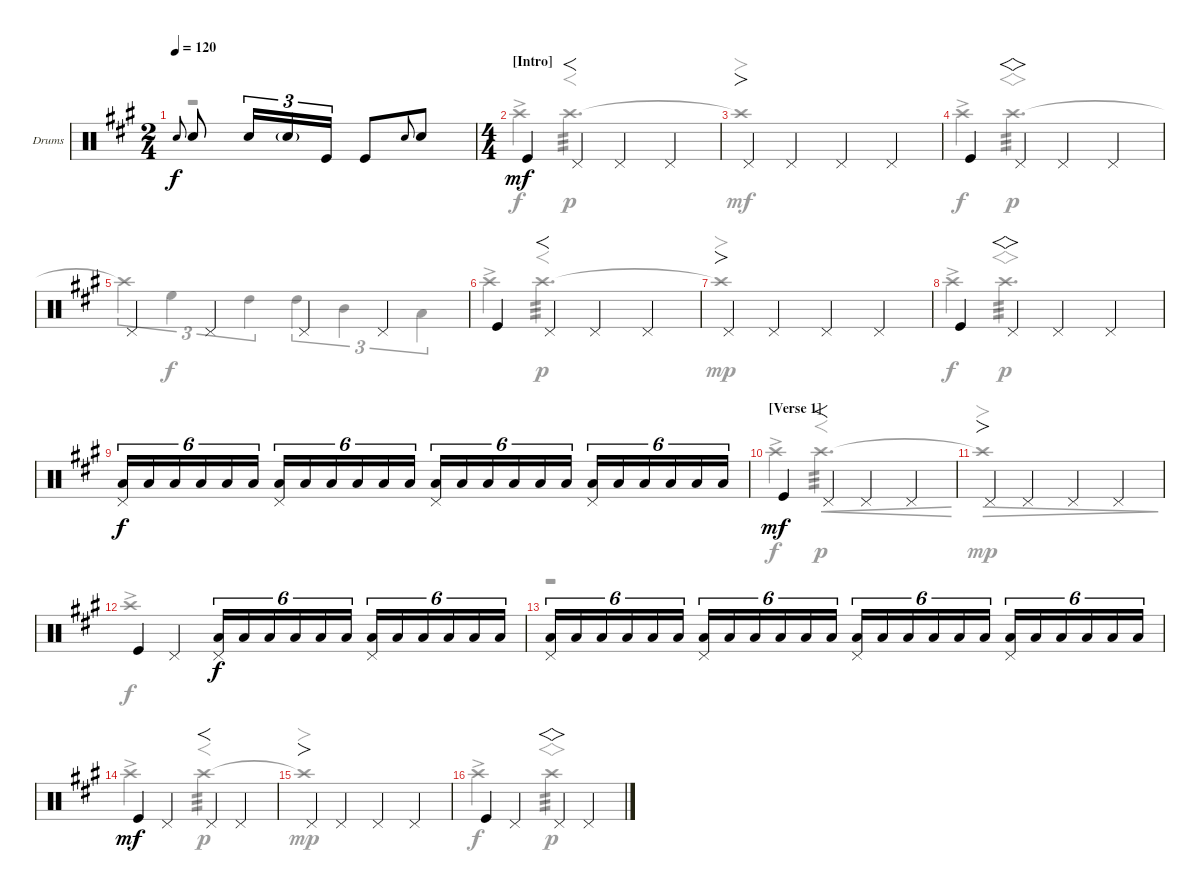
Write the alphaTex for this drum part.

\defaultSystemsLayout 4
\bracketExtendMode groupsimilarinstruments
\firstSystemTrackNameOrientation horizontal
\otherSystemsTrackNameOrientation horizontal
\track ("Drums" "Drums") {instrument percussion}
\staff {score}
\articulation defaults
\voice
\ts (2 4)
\tempo 120
\clef neutral
\ks a "Snare (hit) 2".8{gr onbeat dy f} "Snare (hit) 2".8 "Snare (hit) 2".16{tu (3 2)} "Snare (hit) 2"{g}.16{tu (3 2)} "Kick (hit)".16{tu (3 2)} "Kick (hit)".8 "Snare (hit) 2".8{gr onbeat} "Snare (hit) 2".8
|
\ts (4 4)
\section ("" "[Intro]")
"Kick (hit)".4{dy mf} "Pedal Hi-Hat (hit)".4{f} "Pedal Hi-Hat (hit)".4 "Pedal Hi-Hat (hit)".4 |
"Pedal Hi-Hat (hit)".4{fo} "Pedal Hi-Hat (hit)".4 "Pedal Hi-Hat (hit)".4 "Pedal Hi-Hat (hit)".4 |
"Kick (hit)".4 "Pedal Hi-Hat (hit)".4{vs} "Pedal Hi-Hat (hit)".4 "Pedal Hi-Hat (hit)".4 |
"Pedal Hi-Hat (hit)".4 "Pedal Hi-Hat (hit)".4 "Pedal Hi-Hat (hit)".4 "Pedal Hi-Hat (hit)".4 |
"Kick (hit)".4 "Pedal Hi-Hat (hit)".4{f} "Pedal Hi-Hat (hit)".4 "Pedal Hi-Hat (hit)".4 |
"Pedal Hi-Hat (hit)".4{fo} "Pedal Hi-Hat (hit)".4 "Pedal Hi-Hat (hit)".4 "Pedal Hi-Hat (hit)".4 |
"Kick (hit)".4 "Pedal Hi-Hat (hit)".4{vs} "Pedal Hi-Hat (hit)".4 "Pedal Hi-Hat (hit)".4 |
("Pedal Hi-Hat (hit)" "Low Tom (hit)").16{tu (6 4) dy f} "Low Tom (hit)".16{tu (6 4)} "Low Tom (hit)".16{tu (6 4)} "Low Tom (hit)".16{tu (6 4)} "Low Tom (hit)".16{tu (6 4)} "Low Tom (hit)".16{tu (6 4)} ("Pedal Hi-Hat (hit)" "Low Tom (hit)").16{tu (6 4)} "Low Tom (hit)".16{tu (6 4)} "Low Tom (hit)".16{tu (6 4)} "Low Tom (hit)".16{tu (6 4)} "Low Tom (hit)".16{tu (6 4)} "Low Tom (hit)".16{tu (6 4)} ("Pedal Hi-Hat (hit)" "Low Tom (hit)").16{tu (6 4)} "Low Tom (hit)".16{tu (6 4)} "Low Tom (hit)".16{tu (6 4)} "Low Tom (hit)".16{tu (6 4)} "Low Tom (hit)".16{tu (6 4)} "Low Tom (hit)".16{tu (6 4)} ("Pedal Hi-Hat (hit)" "Low Tom (hit)").16{tu (6 4)} "Low Tom (hit)".16{tu (6 4)} "Low Tom (hit)".16{tu (6 4)} "Low Tom (hit)".16{tu (6 4)} "Low Tom (hit)".16{tu (6 4)} "Low Tom (hit)".16{tu (6 4)} |
\section ("" "[Verse 1]")
"Kick (hit)".4{dy mf} "Pedal Hi-Hat (hit)".4{f} "Pedal Hi-Hat (hit)".4 "Pedal Hi-Hat (hit)".4 |
"Pedal Hi-Hat (hit)".4{fo} "Pedal Hi-Hat (hit)".4 "Pedal Hi-Hat (hit)".4 "Pedal Hi-Hat (hit)".4 |
"Kick (hit)".4 "Pedal Hi-Hat (hit)".4 ("Pedal Hi-Hat (hit)" "Low Tom (hit)").16{tu (6 4) dy f} "Low Tom (hit)".16{tu (6 4)} "Low Tom (hit)".16{tu (6 4)} "Low Tom (hit)".16{tu (6 4)} "Low Tom (hit)".16{tu (6 4)} "Low Tom (hit)".16{tu (6 4)} ("Pedal Hi-Hat (hit)" "Low Tom (hit)").16{tu (6 4)} "Low Tom (hit)".16{tu (6 4)} "Low Tom (hit)".16{tu (6 4)} "Low Tom (hit)".16{tu (6 4)} "Low Tom (hit)".16{tu (6 4)} "Low Tom (hit)".16{tu (6 4)} |
("Pedal Hi-Hat (hit)" "Low Tom (hit)").16{tu (6 4)} "Low Tom (hit)".16{tu (6 4)} "Low Tom (hit)".16{tu (6 4)} "Low Tom (hit)".16{tu (6 4)} "Low Tom (hit)".16{tu (6 4)} "Low Tom (hit)".16{tu (6 4)} ("Pedal Hi-Hat (hit)" "Low Tom (hit)").16{tu (6 4)} "Low Tom (hit)".16{tu (6 4)} "Low Tom (hit)".16{tu (6 4)} "Low Tom (hit)".16{tu (6 4)} "Low Tom (hit)".16{tu (6 4)} "Low Tom (hit)".16{tu (6 4)} ("Pedal Hi-Hat (hit)" "Low Tom (hit)").16{tu (6 4)} "Low Tom (hit)".16{tu (6 4)} "Low Tom (hit)".16{tu (6 4)} "Low Tom (hit)".16{tu (6 4)} "Low Tom (hit)".16{tu (6 4)} "Low Tom (hit)".16{tu (6 4)} ("Pedal Hi-Hat (hit)" "Low Tom (hit)").16{tu (6 4)} "Low Tom (hit)".16{tu (6 4)} "Low Tom (hit)".16{tu (6 4)} "Low Tom (hit)".16{tu (6 4)} "Low Tom (hit)".16{tu (6 4)} "Low Tom (hit)".16{tu (6 4)} |
"Kick (hit)".4{dy mf} "Pedal Hi-Hat (hit)".4 "Pedal Hi-Hat (hit)".4{f} "Pedal Hi-Hat (hit)".4 |
"Pedal Hi-Hat (hit)".4{fo} "Pedal Hi-Hat (hit)".4 "Pedal Hi-Hat (hit)".4 "Pedal Hi-Hat (hit)".4 |
"Kick (hit)".4 "Pedal Hi-Hat (hit)".4 "Pedal Hi-Hat (hit)".4{vs} "Pedal Hi-Hat (hit)".4
\voice
\clef neutral
\ottava regular
\simile none
\ks a
r.2{dy f} |
"Crash high (hit)"{ac}.4 "Crash high (hit)".2{f d tp 3 dy p} |
"Crash high (hit)"{t}.1{fo dy mf} |
"Crash high (hit)"{ac}.4{dy f} "Crash high (hit)".2{vs d tp 3 dy p} |
"Crash high (hit)"{t}.4{tu (3 2)} "High Floor Tom (hit)".4{tu (3 2) dy f} "High Tom (hit)".4{tu (3 2)} "High Tom (hit)".4{tu (3 2)} "Mid Tom (hit)".4{tu (3 2)} "Low Tom (hit)".4{tu (3 2)} |
"Crash high (hit)"{ac}.4 "Crash high (hit)".2{f d tp 3 dy p} |
"Crash high (hit)"{t}.1{fo dy mp} |
"Crash high (hit)"{ac}.4{dy f} "Crash high (hit)".2{vs d tp 3 dy p} |
|
"Crash high (hit)"{ac}.4{dy f} "Crash high (hit)".2{f d tp 3 cre dy p} |
"Crash high (hit)"{t}.1{fo dec dy mp} |
"Crash high (hit)"{ac}.1{dy f} |
r.1 |
"Crash high (hit)"{ac}.2 "Crash high (hit)".2{f tp 3 dy p} |
"Crash high (hit)"{t}.1{fo dy mp} |
"Crash high (hit)"{ac}.2{dy f} "Crash high (hit)".2{vs tp 3 dy p}
